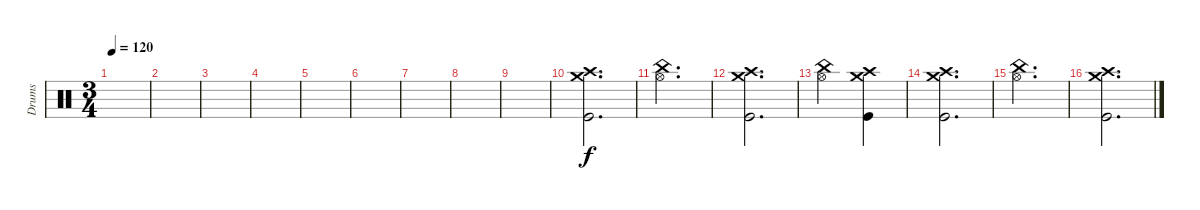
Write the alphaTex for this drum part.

\track ("Drums" "Drums") {instrument percussion}
\staff {score}
\articulation defaults
\ts (3 4)
\tempo 120
\clef neutral
\ks c
|
|
|
|
|
|
|
|
|
("Crash medium (hit)" "Crash high (hit)" "Kick (hit)").2{d} |
("Hi-Hat (open)" "China (hit)").2{d} |
("Crash medium (hit)" "Crash high (hit)" "Kick (hit)").2{d} |
("Hi-Hat (open)" "China (hit)").2 ("Crash medium (hit)" "Crash high (hit)" "Kick (hit)").4 |
("Crash medium (hit)" "Crash high (hit)" "Kick (hit)").2{d} |
("Hi-Hat (open)" "China (hit)").2{d} |
("Crash medium (hit)" "Crash high (hit)" "Kick (hit)").2{d}
